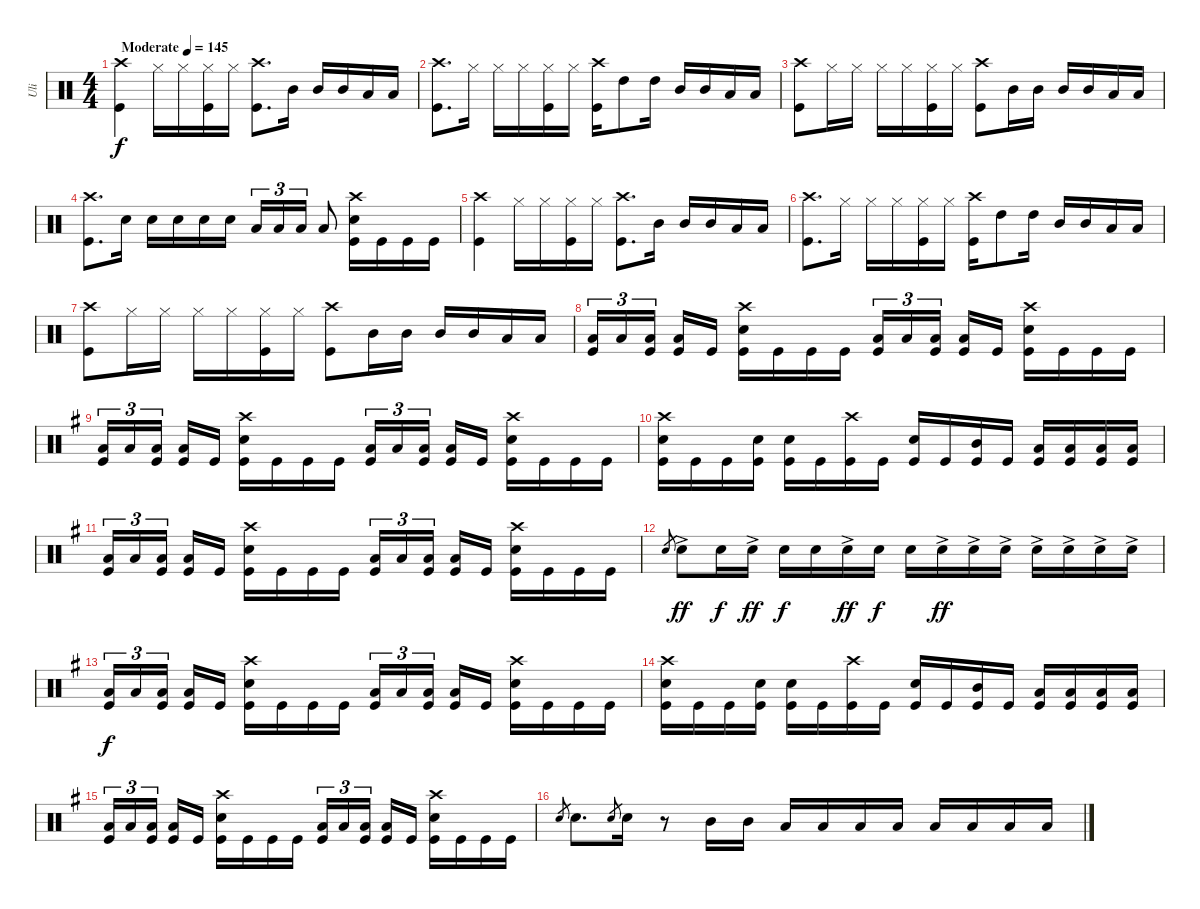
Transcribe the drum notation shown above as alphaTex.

\track ("Uli" "Uli") {instrument percussion}
\staff {score}
\articulation defaults
\ts (4 4)
\tempo (145 "Moderate")
\clef neutral
\ks aminor
("Crash high (hit)" "Kick (hit)").4{dy f} "Hi-Hat (closed)".16 "Hi-Hat (closed)".16 ("Hi-Hat (closed)" "Kick (hit)").16 "Hi-Hat (closed)".16 ("Crash high (hit)" "Kick (hit)").8{d} "Mid Tom (hit)".16 "Mid Tom (hit)".16 "Mid Tom (hit)".16 "Low Tom (hit)".16 "Low Tom (hit)".16 |
("Crash high (hit)" "Kick (hit)").8{d} "Hi-Hat (closed)".16 "Hi-Hat (closed)".16 "Hi-Hat (closed)".16 ("Hi-Hat (closed)" "Kick (hit)").16 "Hi-Hat (closed)".16 ("Crash high (hit)" "Kick (hit)").16 "High Tom (hit)".8 "High Tom (hit)".16 "Mid Tom (hit)".16 "Mid Tom (hit)".16 "Low Tom (hit)".16 "Low Tom (hit)".16 |
("Crash high (hit)" "Kick (hit)").8 "Hi-Hat (closed)".16 "Hi-Hat (closed)".16 "Hi-Hat (closed)".16 "Hi-Hat (closed)".16 ("Hi-Hat (closed)" "Kick (hit)").16 "Hi-Hat (closed)".16 ("Crash high (hit)" "Kick (hit)").8 "Mid Tom (hit)".16 "Mid Tom (hit)".16 "Mid Tom (hit)".16 "Mid Tom (hit)".16 "Low Tom (hit)".16 "Low Tom (hit)".16 |
("Crash high (hit)" "Kick (hit)").8{d} "Snare (hit) 2".16 "Snare (hit) 2".16 "Snare (hit) 2".16 "Snare (hit) 2".16 "Snare (hit) 2".16 "Low Tom (hit)".16{tu (3 2)} "Low Tom (hit)".16{tu (3 2)} "Low Tom (hit)".16{tu (3 2)} "Low Tom (hit)".8 ("Crash high (hit)" "Snare (hit) 2" "Kick (hit)").16 "Kick (hit)".16 "Kick (hit)".16 "Kick (hit)".16 |
("Crash high (hit)" "Kick (hit)").4 "Hi-Hat (closed)".16 "Hi-Hat (closed)".16 ("Hi-Hat (closed)" "Kick (hit)").16 "Hi-Hat (closed)".16 ("Crash high (hit)" "Kick (hit)").8{d} "Mid Tom (hit)".16 "Mid Tom (hit)".16 "Mid Tom (hit)".16 "Low Tom (hit)".16 "Low Tom (hit)".16 |
("Crash high (hit)" "Kick (hit)").8{d} "Hi-Hat (closed)".16 "Hi-Hat (closed)".16 "Hi-Hat (closed)".16 ("Hi-Hat (closed)" "Kick (hit)").16 "Hi-Hat (closed)".16 ("Crash high (hit)" "Kick (hit)").16 "High Tom (hit)".8 "High Tom (hit)".16 "Mid Tom (hit)".16 "Mid Tom (hit)".16 "Low Tom (hit)".16 "Low Tom (hit)".16 |
("Crash high (hit)" "Kick (hit)").8 "Hi-Hat (closed)".16 "Hi-Hat (closed)".16 "Hi-Hat (closed)".16 "Hi-Hat (closed)".16 ("Hi-Hat (closed)" "Kick (hit)").16 "Hi-Hat (closed)".16 ("Crash high (hit)" "Kick (hit)").8 "Mid Tom (hit)".16 "Mid Tom (hit)".16 "Mid Tom (hit)".16 "Mid Tom (hit)".16 "Low Tom (hit)".16 "Low Tom (hit)".16 |
("Low Tom (hit)" "Kick (hit)").16{tu (3 2)} "Low Tom (hit)".16{tu (3 2)} ("Low Tom (hit)" "Kick (hit)").16{tu (3 2) beam splitsecondary} ("Low Tom (hit)" "Kick (hit)").16 "Kick (hit)".16 ("Crash high (hit)" "Snare (hit) 2" "Kick (hit)").16 "Kick (hit)".16 "Kick (hit)".16 "Kick (hit)".16 ("Low Tom (hit)" "Kick (hit)").16{tu (3 2)} "Low Tom (hit)".16{tu (3 2)} ("Low Tom (hit)" "Kick (hit)").16{tu (3 2) beam splitsecondary} ("Low Tom (hit)" "Kick (hit)").16 "Kick (hit)".16 ("Crash high (hit)" "Snare (hit) 2" "Kick (hit)").16 "Kick (hit)".16 "Kick (hit)".16 "Kick (hit)".16 |
\ks eminor
("Low Tom (hit)" "Kick (hit)").16{tu (3 2)} "Low Tom (hit)".16{tu (3 2)} ("Low Tom (hit)" "Kick (hit)").16{tu (3 2) beam splitsecondary} ("Low Tom (hit)" "Kick (hit)").16 "Kick (hit)".16 ("Crash high (hit)" "Snare (hit) 2" "Kick (hit)").16 "Kick (hit)".16 "Kick (hit)".16 "Kick (hit)".16 ("Low Tom (hit)" "Kick (hit)").16{tu (3 2)} "Low Tom (hit)".16{tu (3 2)} ("Low Tom (hit)" "Kick (hit)").16{tu (3 2) beam splitsecondary} ("Low Tom (hit)" "Kick (hit)").16 "Kick (hit)".16 ("Crash high (hit)" "Snare (hit) 2" "Kick (hit)").16 "Kick (hit)".16 "Kick (hit)".16 "Kick (hit)".16 |
("Crash high (hit)" "Snare (hit) 2" "Kick (hit)").16 "Kick (hit)".16 "Kick (hit)".16 ("Snare (hit) 2" "Kick (hit)").16 ("Snare (hit) 2" "Kick (hit)").16 "Kick (hit)".16 ("Crash high (hit)" "Kick (hit)").16 "Kick (hit)".16 ("Snare (hit) 2" "Kick (hit)").16 "Kick (hit)".16 ("Mid Tom (hit)" "Kick (hit)").16 "Kick (hit)".16 ("Low Tom (hit)" "Kick (hit)").16 ("Low Tom (hit)" "Kick (hit)").16 ("Low Tom (hit)" "Kick (hit)").16 ("Low Tom (hit)" "Kick (hit)").16 |
("Low Tom (hit)" "Kick (hit)").16{tu (3 2)} "Low Tom (hit)".16{tu (3 2)} ("Low Tom (hit)" "Kick (hit)").16{tu (3 2) beam splitsecondary} ("Low Tom (hit)" "Kick (hit)").16 "Kick (hit)".16 ("Crash high (hit)" "Snare (hit) 2" "Kick (hit)").16 "Kick (hit)".16 "Kick (hit)".16 "Kick (hit)".16 ("Low Tom (hit)" "Kick (hit)").16{tu (3 2)} "Low Tom (hit)".16{tu (3 2)} ("Low Tom (hit)" "Kick (hit)").16{tu (3 2) beam splitsecondary} ("Low Tom (hit)" "Kick (hit)").16 "Kick (hit)".16 ("Crash high (hit)" "Snare (hit) 2" "Kick (hit)").16 "Kick (hit)".16 "Kick (hit)".16 "Kick (hit)".16 |
"Snare (hit) 2".8{gr} "Snare (hit) 2"{ac}.8{dy ff} "Snare (hit) 2".16{dy f} "Snare (hit) 2"{ac}.16{dy ff} "Snare (hit) 2".16{dy f} "Snare (hit) 2".16 "Snare (hit) 2"{ac}.16{dy ff} "Snare (hit) 2".16{dy f} "Snare (hit) 2".16 "Snare (hit) 2"{ac}.16{dy ff} "Snare (hit) 2"{ac}.16 "Snare (hit) 2"{ac}.16 "Snare (hit) 2"{ac}.16 "Snare (hit) 2"{ac}.16 "Snare (hit) 2"{ac}.16 "Snare (hit) 2"{ac}.16 |
("Low Tom (hit)" "Kick (hit)").16{tu (3 2) dy f} "Low Tom (hit)".16{tu (3 2)} ("Low Tom (hit)" "Kick (hit)").16{tu (3 2) beam splitsecondary} ("Low Tom (hit)" "Kick (hit)").16 "Kick (hit)".16 ("Crash high (hit)" "Snare (hit) 2" "Kick (hit)").16 "Kick (hit)".16 "Kick (hit)".16 "Kick (hit)".16 ("Low Tom (hit)" "Kick (hit)").16{tu (3 2)} "Low Tom (hit)".16{tu (3 2)} ("Low Tom (hit)" "Kick (hit)").16{tu (3 2) beam splitsecondary} ("Low Tom (hit)" "Kick (hit)").16 "Kick (hit)".16 ("Crash high (hit)" "Snare (hit) 2" "Kick (hit)").16 "Kick (hit)".16 "Kick (hit)".16 "Kick (hit)".16 |
("Crash high (hit)" "Snare (hit) 2" "Kick (hit)").16 "Kick (hit)".16 "Kick (hit)".16 ("Snare (hit) 2" "Kick (hit)").16 ("Snare (hit) 2" "Kick (hit)").16 "Kick (hit)".16 ("Crash high (hit)" "Kick (hit)").16 "Kick (hit)".16 ("Snare (hit) 2" "Kick (hit)").16 "Kick (hit)".16 ("Mid Tom (hit)" "Kick (hit)").16 "Kick (hit)".16 ("Low Tom (hit)" "Kick (hit)").16 ("Low Tom (hit)" "Kick (hit)").16 ("Low Tom (hit)" "Kick (hit)").16 ("Low Tom (hit)" "Kick (hit)").16 |
("Low Tom (hit)" "Kick (hit)").16{tu (3 2)} "Low Tom (hit)".16{tu (3 2)} ("Low Tom (hit)" "Kick (hit)").16{tu (3 2) beam splitsecondary} ("Low Tom (hit)" "Kick (hit)").16 "Kick (hit)".16 ("Crash high (hit)" "Snare (hit) 2" "Kick (hit)").16 "Kick (hit)".16 "Kick (hit)".16 "Kick (hit)".16 ("Low Tom (hit)" "Kick (hit)").16{tu (3 2)} "Low Tom (hit)".16{tu (3 2)} ("Low Tom (hit)" "Kick (hit)").16{tu (3 2) beam splitsecondary} ("Low Tom (hit)" "Kick (hit)").16 "Kick (hit)".16 ("Crash high (hit)" "Snare (hit) 2" "Kick (hit)").16 "Kick (hit)".16 "Kick (hit)".16 "Kick (hit)".16 |
"Snare (hit) 2".8{gr} "Snare (hit) 2".8{d} "Snare (hit) 2".8{gr} "Snare (hit) 2".16 r.8 "Mid Tom (hit)".16 "Mid Tom (hit)".16 "Low Tom (hit)".16 "Low Tom (hit)".16 "Low Tom (hit)".16 "Low Tom (hit)".16 "Low Tom (hit)".16 "Low Tom (hit)".16 "Low Tom (hit)".16 "Low Tom (hit)".16
